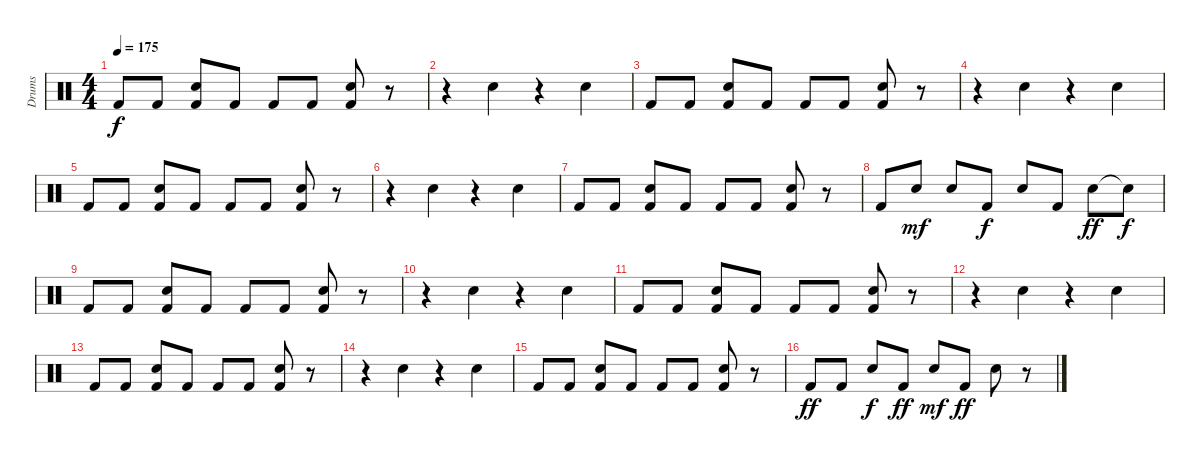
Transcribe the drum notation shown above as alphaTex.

\track ("Drums" "Drums") {instrument percussion}
\staff {score}
\articulation defaults
\ts (4 4)
\tempo 175
\clef neutral
\ks c "Kick (hit) 2".8{dy f volume 6} "Kick (hit) 2".8
("Snare (hit) 2" "Kick (hit) 2").8 "Kick (hit) 2".8 "Kick (hit) 2".8 "Kick (hit) 2".8 ("Snare (hit) 2" "Kick (hit) 2").8 r.8 |
r.4 "Snare (hit) 2".4 r.4 "Snare (hit) 2".4 |
"Kick (hit) 2".8 "Kick (hit) 2".8 ("Snare (hit) 2" "Kick (hit) 2").8 "Kick (hit) 2".8 "Kick (hit) 2".8 "Kick (hit) 2".8 ("Snare (hit) 2" "Kick (hit) 2").8 r.8 |
r.4 "Snare (hit) 2".4 r.4 "Snare (hit) 2".4 |
"Kick (hit) 2".8 "Kick (hit) 2".8 ("Snare (hit) 2" "Kick (hit) 2").8 "Kick (hit) 2".8 "Kick (hit) 2".8 "Kick (hit) 2".8 ("Snare (hit) 2" "Kick (hit) 2").8 r.8 |
r.4 "Snare (hit) 2".4 r.4 "Snare (hit) 2".4 |
"Kick (hit) 2".8 "Kick (hit) 2".8 ("Snare (hit) 2" "Kick (hit) 2").8 "Kick (hit) 2".8 "Kick (hit) 2".8 "Kick (hit) 2".8 ("Snare (hit) 2" "Kick (hit) 2").8 r.8 |
"Kick (hit) 2".8 "Snare (hit) 2".8{dy mf} "Snare (hit) 2".8 "Kick (hit) 2".8{dy f} "Snare (hit) 2".8 "Kick (hit) 2".8 "Snare (hit) 2".8{dy ff} "Snare (hit) 2"{t}.8{dy f} |
"Kick (hit) 2".8 "Kick (hit) 2".8 ("Snare (hit) 2" "Kick (hit) 2").8 "Kick (hit) 2".8 "Kick (hit) 2".8 "Kick (hit) 2".8 ("Snare (hit) 2" "Kick (hit) 2").8 r.8 |
r.4 "Snare (hit) 2".4 r.4 "Snare (hit) 2".4 |
"Kick (hit) 2".8 "Kick (hit) 2".8 ("Snare (hit) 2" "Kick (hit) 2").8 "Kick (hit) 2".8 "Kick (hit) 2".8 "Kick (hit) 2".8 ("Snare (hit) 2" "Kick (hit) 2").8 r.8 |
r.4 "Snare (hit) 2".4 r.4 "Snare (hit) 2".4 |
"Kick (hit) 2".8 "Kick (hit) 2".8 ("Snare (hit) 2" "Kick (hit) 2").8 "Kick (hit) 2".8 "Kick (hit) 2".8 "Kick (hit) 2".8 ("Snare (hit) 2" "Kick (hit) 2").8 r.8 |
r.4 "Snare (hit) 2".4 r.4 "Snare (hit) 2".4 |
"Kick (hit) 2".8 "Kick (hit) 2".8 ("Snare (hit) 2" "Kick (hit) 2").8 "Kick (hit) 2".8 "Kick (hit) 2".8 "Kick (hit) 2".8 ("Snare (hit) 2" "Kick (hit) 2").8 r.8 |
"Kick (hit) 2".8{dy ff} "Kick (hit) 2".8 "Snare (hit) 2".8{dy f} "Kick (hit) 2".8{dy ff} "Snare (hit) 2".8{dy mf} "Kick (hit) 2".8{dy ff} "Snare (hit) 2".8 r.8
